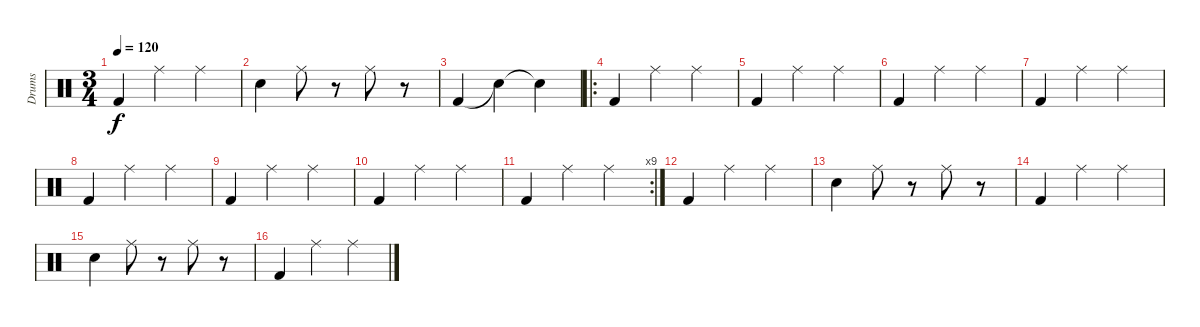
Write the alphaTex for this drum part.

\track ("Drums" "Drums") {instrument percussion}
\staff {score}
\articulation defaults
\ts (3 4)
\tempo 120
\clef neutral
\ks c "Kick (hit) 2".4{dy f} "Ride (middle)".4 "Ride (middle)".4
|
"Snare (hit) 2".4 "Ride (middle)".8 r.8 "Ride (middle)".8 r.8 |
"Kick (hit) 2".4 "Snare (hit)"{t}.4 "Snare (hit)"{t}.4 |
\ro "Kick (hit) 2".4 "Ride (middle)".4 "Ride (middle)".4
|
"Kick (hit) 2".4 "Ride (middle)".4 "Ride (middle)".4 |
"Kick (hit) 2".4 "Ride (middle)".4 "Ride (middle)".4 |
"Kick (hit) 2".4 "Ride (middle)".4 "Ride (middle)".4 |
"Kick (hit) 2".4 "Ride (middle)".4 "Ride (middle)".4 |
"Kick (hit) 2".4 "Ride (middle)".4 "Ride (middle)".4 |
"Kick (hit) 2".4 "Ride (middle)".4 "Ride (middle)".4 |
\rc 9 "Kick (hit) 2".4 "Ride (middle)".4 "Ride (middle)".4
|
"Kick (hit) 2".4 "Ride (middle)".4 "Ride (middle)".4 |
"Snare (hit) 2".4 "Ride (middle)".8 r.8 "Ride (middle)".8 r.8 |
"Kick (hit) 2".4 "Ride (middle)".4 "Ride (middle)".4 |
"Snare (hit) 2".4 "Ride (middle)".8 r.8 "Ride (middle)".8 r.8 |
"Kick (hit) 2".4 "Ride (middle)".4 "Ride (middle)".4
